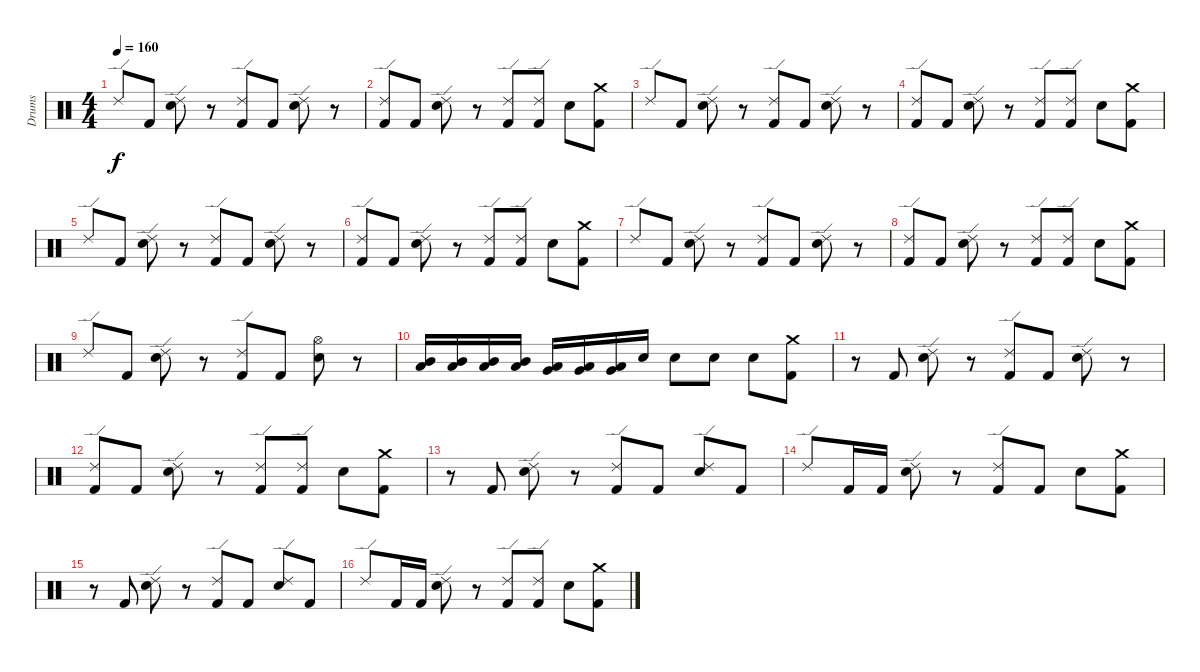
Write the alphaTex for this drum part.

\track ("Drums" "Drums") {instrument percussion}
\staff {score}
\articulation defaults
\ts (4 4)
\tempo 160
\clef neutral
\ks c "Ride (edge) 2".8{dy f} "Kick (hit) 2".8
("Ride (edge) 2" "Snare (hit) 2").8 r.8 ("Ride (edge) 2" "Kick (hit) 2").8 "Kick (hit) 2".8 ("Ride (edge) 2" "Snare (hit) 2").8 r.8 |
("Ride (edge) 2" "Kick (hit) 2").8 "Kick (hit) 2".8 ("Ride (edge) 2" "Snare (hit) 2").8 r.8 ("Ride (edge) 2" "Kick (hit) 2").8 ("Ride (edge) 2" "Kick (hit) 2").8 "Snare (hit) 2".8 ("Crash medium (hit)" "Kick (hit) 2").8 |
"Ride (edge) 2".8 "Kick (hit) 2".8 ("Ride (edge) 2" "Snare (hit) 2").8 r.8 ("Ride (edge) 2" "Kick (hit) 2").8 "Kick (hit) 2".8 ("Ride (edge) 2" "Snare (hit) 2").8 r.8 |
("Ride (edge) 2" "Kick (hit) 2").8 "Kick (hit) 2".8 ("Ride (edge) 2" "Snare (hit) 2").8 r.8 ("Ride (edge) 2" "Kick (hit) 2").8 ("Ride (edge) 2" "Kick (hit) 2").8 "Snare (hit) 2".8 ("Crash medium (hit)" "Kick (hit) 2").8 |
"Ride (edge) 2".8 "Kick (hit) 2".8 ("Ride (edge) 2" "Snare (hit) 2").8 r.8 ("Ride (edge) 2" "Kick (hit) 2").8 "Kick (hit) 2".8 ("Ride (edge) 2" "Snare (hit) 2").8 r.8 |
("Ride (edge) 2" "Kick (hit) 2").8 "Kick (hit) 2".8 ("Ride (edge) 2" "Snare (hit) 2").8 r.8 ("Ride (edge) 2" "Kick (hit) 2").8 ("Ride (edge) 2" "Kick (hit) 2").8 "Snare (hit) 2".8 ("Crash medium (hit)" "Kick (hit) 2").8 |
"Ride (edge) 2".8 "Kick (hit) 2".8 ("Ride (edge) 2" "Snare (hit) 2").8 r.8 ("Ride (edge) 2" "Kick (hit) 2").8 "Kick (hit) 2".8 ("Ride (edge) 2" "Snare (hit) 2").8 r.8 |
("Ride (edge) 2" "Kick (hit) 2").8 "Kick (hit) 2".8 ("Ride (edge) 2" "Snare (hit) 2").8 r.8 ("Ride (edge) 2" "Kick (hit) 2").8 ("Ride (edge) 2" "Kick (hit) 2").8 "Snare (hit) 2".8 ("Crash medium (hit)" "Kick (hit) 2").8 |
"Ride (edge) 2".8 "Kick (hit) 2".8 ("Ride (edge) 2" "Snare (hit) 2").8 r.8 ("Ride (edge) 2" "Kick (hit) 2").8 "Kick (hit) 2".8 ("Hi-Hat (open)" "Snare (hit) 2").8 r.8 |
("Mid Tom (hit)" "Low Tom (hit)").16 ("Mid Tom (hit)" "Low Tom (hit)").16 ("Mid Tom (hit)" "Low Tom (hit)").16 ("Mid Tom (hit)" "Low Tom (hit)").16 ("Low Tom (hit)" "Very Low Tom (hit)").16 ("Low Tom (hit)" "Very Low Tom (hit)").16 ("Low Tom (hit)" "Very Low Tom (hit)").16 "Snare (hit) 2".16 "Snare (hit) 2".8 "Snare (hit) 2".8 "Snare (hit) 2".8 ("Crash medium (hit)" "Kick (hit) 2").8 |
r.8 "Kick (hit) 2".8 ("Ride (edge) 2" "Snare (hit) 2").8 r.8 ("Ride (edge) 2" "Kick (hit) 2").8 "Kick (hit) 2".8 ("Ride (edge) 2" "Snare (hit) 2").8 r.8 |
("Ride (edge) 2" "Kick (hit) 2").8 "Kick (hit) 2".8 ("Ride (edge) 2" "Snare (hit) 2").8 r.8 ("Ride (edge) 2" "Kick (hit) 2").8 ("Ride (edge) 2" "Kick (hit) 2").8 "Snare (hit) 2".8 ("Crash medium (hit)" "Kick (hit) 2").8 |
r.8 "Kick (hit) 2".8 ("Ride (edge) 2" "Snare (hit) 2").8 r.8 ("Ride (edge) 2" "Kick (hit) 2").8 "Kick (hit) 2".8 ("Ride (edge) 2" "Snare (hit) 2").8 "Kick (hit) 2".8 |
"Ride (edge) 2".8 "Kick (hit) 2".16 "Kick (hit) 2".16 ("Ride (edge) 2" "Snare (hit) 2").8 r.8 ("Ride (edge) 2" "Kick (hit) 2").8 "Kick (hit) 2".8 "Snare (hit) 2".8 ("Crash medium (hit)" "Kick (hit) 2").8 |
r.8 "Kick (hit) 2".8 ("Ride (edge) 2" "Snare (hit) 2").8 r.8 ("Ride (edge) 2" "Kick (hit) 2").8 "Kick (hit) 2".8 ("Ride (edge) 2" "Snare (hit) 2").8 "Kick (hit) 2".8 |
"Ride (edge) 2".8 "Kick (hit) 2".16 "Kick (hit) 2".16 ("Ride (edge) 2" "Snare (hit) 2").8 r.8 ("Ride (edge) 2" "Kick (hit) 2").8 ("Ride (edge) 2" "Kick (hit) 2").8 "Snare (hit) 2".8 ("Crash medium (hit)" "Kick (hit) 2").8
